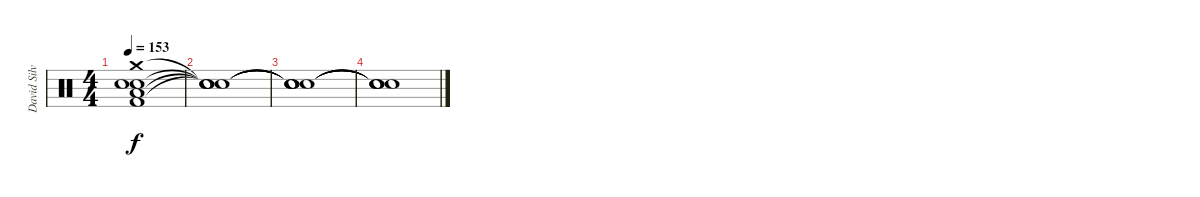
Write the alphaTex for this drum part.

\track ("David Silveria" "David Silv") {instrument percussion}
\staff {score}
\articulation defaults
\ts (4 4)
\tempo 153
\clef neutral
\ks c
("Crash medium (hit)" "Electric Snare (hit)" "Kick (hit) 2" "Low Floor Tom (hit)" "Snare (hit) 2").1{dy f} |
("Snare (hit)"{t} "Snare (hit)"{t} "Snare (hit)"{t} "Snare (hit)"{t}).1 |
("Snare (hit)"{t} "Snare (hit)"{t} "Snare (hit)"{t} "Snare (hit)"{t}).1 |
("Snare (hit)"{t} "Snare (hit)"{t} "Snare (hit)"{t} "Snare (hit)"{t}).1
